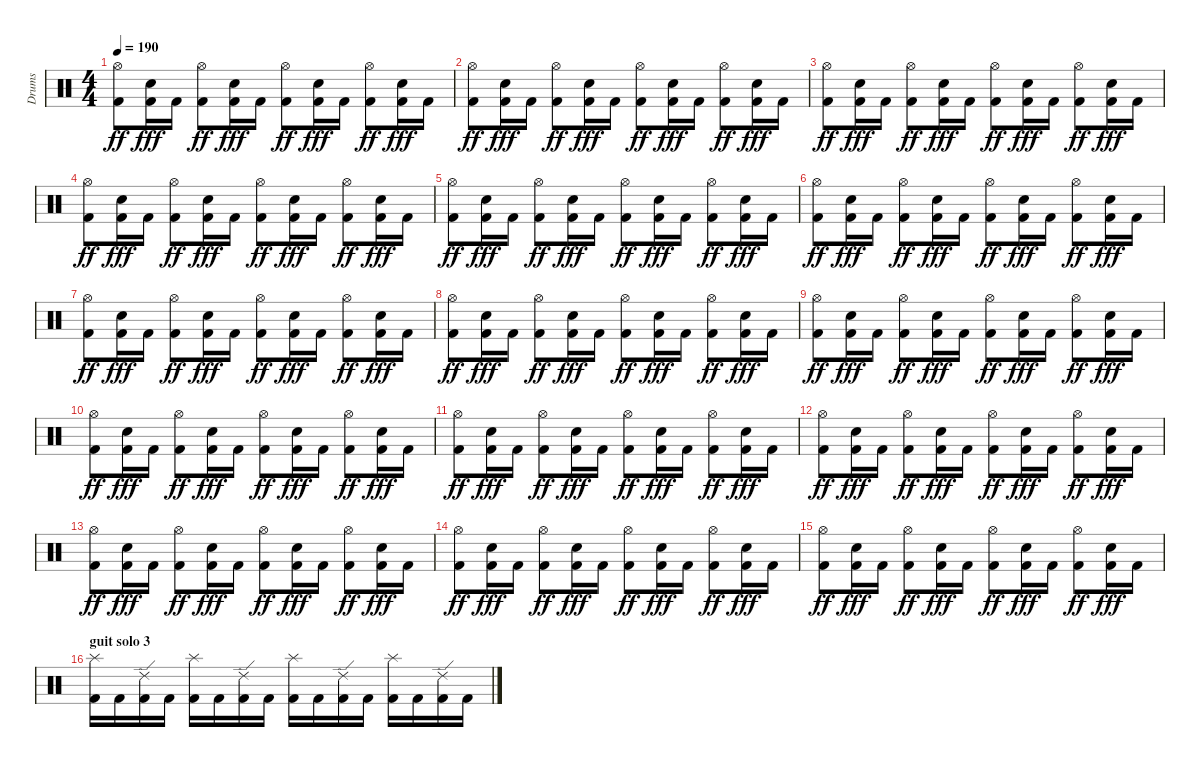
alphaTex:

\track ("Drums" "Drums") {instrument percussion}
\staff {score}
\articulation defaults
\ts (4 4)
\tempo 190
\clef neutral
\ks c
("Kick (hit) 2" "Hi-Hat (open)").8{dy ff} ("Kick (hit) 2" "Snare (hit) 2").16{dy fff} "Kick (hit) 2".16 ("Kick (hit) 2" "Hi-Hat (open)").8{dy ff} ("Kick (hit) 2" "Snare (hit) 2").16{dy fff} "Kick (hit) 2".16 ("Kick (hit) 2" "Hi-Hat (open)").8{dy ff} ("Kick (hit) 2" "Snare (hit) 2").16{dy fff} "Kick (hit) 2".16 ("Kick (hit) 2" "Hi-Hat (open)").8{dy ff} ("Kick (hit) 2" "Snare (hit) 2").16{dy fff} "Kick (hit) 2".16 |
("Kick (hit) 2" "Hi-Hat (open)").8{dy ff} ("Kick (hit) 2" "Snare (hit) 2").16{dy fff} "Kick (hit) 2".16 ("Kick (hit) 2" "Hi-Hat (open)").8{dy ff} ("Kick (hit) 2" "Snare (hit) 2").16{dy fff} "Kick (hit) 2".16 ("Kick (hit) 2" "Hi-Hat (open)").8{dy ff} ("Kick (hit) 2" "Snare (hit) 2").16{dy fff} "Kick (hit) 2".16 ("Kick (hit) 2" "Hi-Hat (open)").8{dy ff} ("Kick (hit) 2" "Snare (hit) 2").16{dy fff} "Kick (hit) 2".16 |
("Kick (hit) 2" "Hi-Hat (open)").8{dy ff} ("Kick (hit) 2" "Snare (hit) 2").16{dy fff} "Kick (hit) 2".16 ("Kick (hit) 2" "Hi-Hat (open)").8{dy ff} ("Kick (hit) 2" "Snare (hit) 2").16{dy fff} "Kick (hit) 2".16 ("Kick (hit) 2" "Hi-Hat (open)").8{dy ff} ("Kick (hit) 2" "Snare (hit) 2").16{dy fff} "Kick (hit) 2".16 ("Kick (hit) 2" "Hi-Hat (open)").8{dy ff} ("Kick (hit) 2" "Snare (hit) 2").16{dy fff} "Kick (hit) 2".16 |
("Kick (hit) 2" "Hi-Hat (open)").8{dy ff} ("Kick (hit) 2" "Snare (hit) 2").16{dy fff} "Kick (hit) 2".16 ("Kick (hit) 2" "Hi-Hat (open)").8{dy ff} ("Kick (hit) 2" "Snare (hit) 2").16{dy fff} "Kick (hit) 2".16 ("Kick (hit) 2" "Hi-Hat (open)").8{dy ff} ("Kick (hit) 2" "Snare (hit) 2").16{dy fff} "Kick (hit) 2".16 ("Kick (hit) 2" "Hi-Hat (open)").8{dy ff} ("Kick (hit) 2" "Snare (hit) 2").16{dy fff} "Kick (hit) 2".16 |
("Kick (hit) 2" "Hi-Hat (open)").8{dy ff} ("Kick (hit) 2" "Snare (hit) 2").16{dy fff} "Kick (hit) 2".16 ("Kick (hit) 2" "Hi-Hat (open)").8{dy ff} ("Kick (hit) 2" "Snare (hit) 2").16{dy fff} "Kick (hit) 2".16 ("Kick (hit) 2" "Hi-Hat (open)").8{dy ff} ("Kick (hit) 2" "Snare (hit) 2").16{dy fff} "Kick (hit) 2".16 ("Kick (hit) 2" "Hi-Hat (open)").8{dy ff} ("Kick (hit) 2" "Snare (hit) 2").16{dy fff} "Kick (hit) 2".16 |
("Kick (hit) 2" "Hi-Hat (open)").8{dy ff} ("Kick (hit) 2" "Snare (hit) 2").16{dy fff} "Kick (hit) 2".16 ("Kick (hit) 2" "Hi-Hat (open)").8{dy ff} ("Kick (hit) 2" "Snare (hit) 2").16{dy fff} "Kick (hit) 2".16 ("Kick (hit) 2" "Hi-Hat (open)").8{dy ff} ("Kick (hit) 2" "Snare (hit) 2").16{dy fff} "Kick (hit) 2".16 ("Kick (hit) 2" "Hi-Hat (open)").8{dy ff} ("Kick (hit) 2" "Snare (hit) 2").16{dy fff} "Kick (hit) 2".16 |
("Kick (hit) 2" "Hi-Hat (open)").8{dy ff} ("Kick (hit) 2" "Snare (hit) 2").16{dy fff} "Kick (hit) 2".16 ("Kick (hit) 2" "Hi-Hat (open)").8{dy ff} ("Kick (hit) 2" "Snare (hit) 2").16{dy fff} "Kick (hit) 2".16 ("Kick (hit) 2" "Hi-Hat (open)").8{dy ff} ("Kick (hit) 2" "Snare (hit) 2").16{dy fff} "Kick (hit) 2".16 ("Kick (hit) 2" "Hi-Hat (open)").8{dy ff} ("Kick (hit) 2" "Snare (hit) 2").16{dy fff} "Kick (hit) 2".16 |
("Kick (hit) 2" "Hi-Hat (open)").8{dy ff} ("Kick (hit) 2" "Snare (hit) 2").16{dy fff} "Kick (hit) 2".16 ("Kick (hit) 2" "Hi-Hat (open)").8{dy ff} ("Kick (hit) 2" "Snare (hit) 2").16{dy fff} "Kick (hit) 2".16 ("Kick (hit) 2" "Hi-Hat (open)").8{dy ff} ("Kick (hit) 2" "Snare (hit) 2").16{dy fff} "Kick (hit) 2".16 ("Kick (hit) 2" "Hi-Hat (open)").8{dy ff} ("Kick (hit) 2" "Snare (hit) 2").16{dy fff} "Kick (hit) 2".16 |
("Kick (hit) 2" "Hi-Hat (open)").8{dy ff} ("Kick (hit) 2" "Snare (hit) 2").16{dy fff} "Kick (hit) 2".16 ("Kick (hit) 2" "Hi-Hat (open)").8{dy ff} ("Kick (hit) 2" "Snare (hit) 2").16{dy fff} "Kick (hit) 2".16 ("Kick (hit) 2" "Hi-Hat (open)").8{dy ff} ("Kick (hit) 2" "Snare (hit) 2").16{dy fff} "Kick (hit) 2".16 ("Kick (hit) 2" "Hi-Hat (open)").8{dy ff} ("Kick (hit) 2" "Snare (hit) 2").16{dy fff} "Kick (hit) 2".16 |
("Kick (hit) 2" "Hi-Hat (open)").8{dy ff} ("Kick (hit) 2" "Snare (hit) 2").16{dy fff} "Kick (hit) 2".16 ("Kick (hit) 2" "Hi-Hat (open)").8{dy ff} ("Kick (hit) 2" "Snare (hit) 2").16{dy fff} "Kick (hit) 2".16 ("Kick (hit) 2" "Hi-Hat (open)").8{dy ff} ("Kick (hit) 2" "Snare (hit) 2").16{dy fff} "Kick (hit) 2".16 ("Kick (hit) 2" "Hi-Hat (open)").8{dy ff} ("Kick (hit) 2" "Snare (hit) 2").16{dy fff} "Kick (hit) 2".16 |
("Kick (hit) 2" "Hi-Hat (open)").8{dy ff} ("Kick (hit) 2" "Snare (hit) 2").16{dy fff} "Kick (hit) 2".16 ("Kick (hit) 2" "Hi-Hat (open)").8{dy ff} ("Kick (hit) 2" "Snare (hit) 2").16{dy fff} "Kick (hit) 2".16 ("Kick (hit) 2" "Hi-Hat (open)").8{dy ff} ("Kick (hit) 2" "Snare (hit) 2").16{dy fff} "Kick (hit) 2".16 ("Kick (hit) 2" "Hi-Hat (open)").8{dy ff} ("Kick (hit) 2" "Snare (hit) 2").16{dy fff} "Kick (hit) 2".16 |
("Kick (hit) 2" "Hi-Hat (open)").8{dy ff} ("Kick (hit) 2" "Snare (hit) 2").16{dy fff} "Kick (hit) 2".16 ("Kick (hit) 2" "Hi-Hat (open)").8{dy ff} ("Kick (hit) 2" "Snare (hit) 2").16{dy fff} "Kick (hit) 2".16 ("Kick (hit) 2" "Hi-Hat (open)").8{dy ff} ("Kick (hit) 2" "Snare (hit) 2").16{dy fff} "Kick (hit) 2".16 ("Kick (hit) 2" "Hi-Hat (open)").8{dy ff} ("Kick (hit) 2" "Snare (hit) 2").16{dy fff} "Kick (hit) 2".16 |
("Kick (hit) 2" "Hi-Hat (open)").8{dy ff} ("Kick (hit) 2" "Snare (hit) 2").16{dy fff} "Kick (hit) 2".16 ("Kick (hit) 2" "Hi-Hat (open)").8{dy ff} ("Kick (hit) 2" "Snare (hit) 2").16{dy fff} "Kick (hit) 2".16 ("Kick (hit) 2" "Hi-Hat (open)").8{dy ff} ("Kick (hit) 2" "Snare (hit) 2").16{dy fff} "Kick (hit) 2".16 ("Kick (hit) 2" "Hi-Hat (open)").8{dy ff} ("Kick (hit) 2" "Snare (hit) 2").16{dy fff} "Kick (hit) 2".16 |
("Kick (hit) 2" "Hi-Hat (open)").8{dy ff} ("Kick (hit) 2" "Snare (hit) 2").16{dy fff} "Kick (hit) 2".16 ("Kick (hit) 2" "Hi-Hat (open)").8{dy ff} ("Kick (hit) 2" "Snare (hit) 2").16{dy fff} "Kick (hit) 2".16 ("Kick (hit) 2" "Hi-Hat (open)").8{dy ff} ("Kick (hit) 2" "Snare (hit) 2").16{dy fff} "Kick (hit) 2".16 ("Kick (hit) 2" "Hi-Hat (open)").8{dy ff} ("Kick (hit) 2" "Snare (hit) 2").16{dy fff} "Kick (hit) 2".16 |
("Kick (hit) 2" "Hi-Hat (open)").8{dy ff} ("Kick (hit) 2" "Snare (hit) 2").16{dy fff} "Kick (hit) 2".16 ("Kick (hit) 2" "Hi-Hat (open)").8{dy ff} ("Kick (hit) 2" "Snare (hit) 2").16{dy fff} "Kick (hit) 2".16 ("Kick (hit) 2" "Hi-Hat (open)").8{dy ff} ("Kick (hit) 2" "Snare (hit) 2").16{dy fff} "Kick (hit) 2".16 ("Kick (hit) 2" "Hi-Hat (open)").8{dy ff} ("Kick (hit) 2" "Snare (hit) 2").16{dy fff} "Kick (hit) 2".16 |
\section ("" "guit solo 3")
("Splash (hit)" "Kick (hit) 2").16 "Kick (hit) 2".16 ("Ride (edge) 2" "Kick (hit) 2").16 "Kick (hit) 2".16 ("Splash (hit)" "Kick (hit) 2").16 "Kick (hit) 2".16 ("Ride (edge) 2" "Kick (hit) 2").16 "Kick (hit) 2".16 ("Splash (hit)" "Kick (hit) 2").16 "Kick (hit) 2".16 ("Ride (edge) 2" "Kick (hit) 2").16 "Kick (hit) 2".16 ("Splash (hit)" "Kick (hit) 2").16 "Kick (hit) 2".16 ("Ride (edge) 2" "Kick (hit) 2").16 "Kick (hit) 2".16
